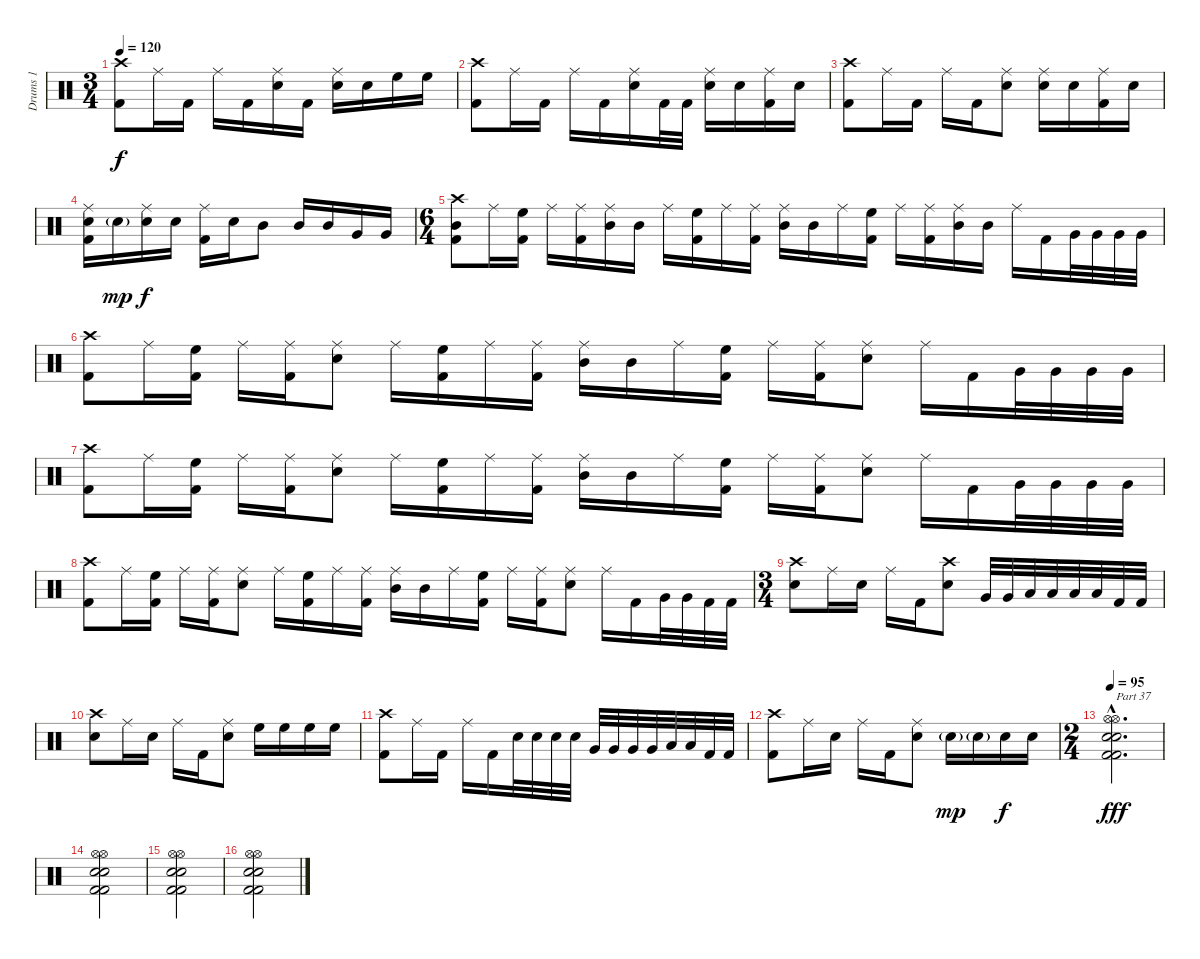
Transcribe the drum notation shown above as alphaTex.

\track ("Drums 1" "Drums 1") {instrument percussion}
\staff {score}
\articulation defaults
\ts (3 4)
\tempo 120
\clef neutral
\ks c
("Kick (hit) 2" "Crash high (hit)").8{dy f} "Ride (middle)".16 "Kick (hit) 2".16 "Ride (middle)".16 "Kick (hit) 2".16 ("Ride (middle)" "Snare (hit) 2").16 "Kick (hit) 2".16 ("Ride (middle)" "Snare (hit) 2").16 "Snare (hit) 2".16 "High Floor Tom (hit)".16 "High Floor Tom (hit)".16 |
("Kick (hit) 2" "Crash high (hit)").8 "Ride (middle)".16 "Kick (hit) 2".16 "Ride (middle)".16 "Kick (hit) 2".16 ("Ride (middle)" "Snare (hit) 2").16 "Kick (hit) 2".32 "Kick (hit) 2".32 ("Ride (middle)" "Snare (hit) 2").16 "Snare (hit) 2".16 ("Ride (middle)" "Kick (hit) 2").16 "Snare (hit) 2".16 |
("Crash high (hit)" "Kick (hit) 2").8 "Ride (middle)".16 "Kick (hit) 2".16 "Ride (middle)".16 "Kick (hit) 2".16 ("Ride (middle)" "Snare (hit) 2").8 ("Ride (middle)" "Snare (hit) 2").16 "Snare (hit) 2".16 ("Ride (middle)" "Kick (hit) 2").16 "Snare (hit) 2".16 |
("Ride (middle)" "Snare (hit) 2" "Kick (hit) 2").16 "Snare (hit) 2"{g}.16{dy mp} ("Ride (middle)" "Snare (hit) 2").16{dy f} "Snare (hit) 2".16 ("Ride (middle)" "Kick (hit) 2").16 "Snare (hit) 2".16 "Mid Tom (hit)".8 "Mid Tom (hit)".16 "Mid Tom (hit)".16 "Very Low Tom (hit)".16 "Very Low Tom (hit)".16 |
\ts (6 4)
("Crash high (hit)" "Mid Tom (hit)" "Kick (hit) 2").8 "Ride (middle)".16 ("High Floor Tom (hit)" "Kick (hit) 2").16 "Ride (middle)".16 ("Ride (middle)" "Kick (hit) 2").16 ("Ride (middle)" "Mid Tom (hit)").16 "Mid Tom (hit)".16 "Ride (middle)".16 ("High Floor Tom (hit)" "Kick (hit) 2").16 "Ride (middle)".16 ("Ride (middle)" "Kick (hit) 2").16 ("Ride (middle)" "Mid Tom (hit)").16 "Mid Tom (hit)".16 "Ride (middle)".16 ("High Floor Tom (hit)" "Kick (hit) 2").16 "Ride (middle)".16 ("Kick (hit) 2" "Ride (middle)").16 ("Mid Tom (hit)" "Ride (middle)").16 "Mid Tom (hit)".16 "Ride (middle)".16 "Kick (hit) 2".16 "Very Low Tom (hit)".32 "Very Low Tom (hit)".32 "Very Low Tom (hit)".32 "Very Low Tom (hit)".32 |
("Crash high (hit)" "Kick (hit) 2").8 "Ride (middle)".16 ("High Floor Tom (hit)" "Kick (hit) 2").16 "Ride (middle)".16 ("Ride (middle)" "Kick (hit) 2").16 ("Ride (middle)" "Snare (hit) 2").8 "Ride (middle)".16 ("High Floor Tom (hit)" "Kick (hit) 2").16 "Ride (middle)".16 ("Ride (middle)" "Kick (hit) 2").16 ("Ride (middle)" "Mid Tom (hit)").16 "Mid Tom (hit)".16 "Ride (middle)".16 ("High Floor Tom (hit)" "Kick (hit) 2").16 "Ride (middle)".16 ("Kick (hit) 2" "Ride (middle)").16 ("Snare (hit) 2" "Ride (middle)").8 "Ride (middle)".16 "Kick (hit) 2".16 "Very Low Tom (hit)".32 "Very Low Tom (hit)".32 "Very Low Tom (hit)".32 "Very Low Tom (hit)".32 |
("Crash high (hit)" "Kick (hit) 2").8 "Ride (middle)".16 ("High Floor Tom (hit)" "Kick (hit) 2").16 "Ride (middle)".16 ("Ride (middle)" "Kick (hit) 2").16 ("Ride (middle)" "Snare (hit) 2").8 "Ride (middle)".16 ("High Floor Tom (hit)" "Kick (hit) 2").16 "Ride (middle)".16 ("Ride (middle)" "Kick (hit) 2").16 ("Ride (middle)" "Mid Tom (hit)").16 "Mid Tom (hit)".16 "Ride (middle)".16 ("High Floor Tom (hit)" "Kick (hit) 2").16 "Ride (middle)".16 ("Kick (hit) 2" "Ride (middle)").16 ("Snare (hit) 2" "Ride (middle)").8 "Ride (middle)".16 "Kick (hit) 2".16 "Very Low Tom (hit)".32 "Very Low Tom (hit)".32 "Very Low Tom (hit)".32 "Very Low Tom (hit)".32 |
("Crash high (hit)" "Kick (hit) 2").8 "Ride (middle)".16 ("High Floor Tom (hit)" "Kick (hit) 2").16 "Ride (middle)".16 ("Ride (middle)" "Kick (hit) 2").16 ("Ride (middle)" "Snare (hit) 2").8 "Ride (middle)".16 ("High Floor Tom (hit)" "Kick (hit) 2").16 "Ride (middle)".16 ("Ride (middle)" "Kick (hit) 2").16 ("Ride (middle)" "Mid Tom (hit)").16 "Mid Tom (hit)".16 "Ride (middle)".16 ("High Floor Tom (hit)" "Kick (hit) 2").16 "Ride (middle)".16 ("Kick (hit) 2" "Ride (middle)").16 ("Snare (hit) 2" "Ride (middle)").8 "Ride (middle)".16 "Kick (hit) 2".16 "Very Low Tom (hit)".32 "Very Low Tom (hit)".32 "Kick (hit) 2".32 "Kick (hit) 2".32 |
\ts (3 4)
("Crash high (hit)" "Snare (hit) 2").8 "Ride (middle)".16 "Snare (hit) 2".16 "Ride (middle)".16 "Kick (hit) 2".16 ("Crash high (hit)" "Snare (hit) 2").8 "Very Low Tom (hit)".32 "Very Low Tom (hit)".32 "Low Floor Tom (hit)".32 "Low Floor Tom (hit)".32 "Low Floor Tom (hit)".32 "Low Floor Tom (hit)".32 "Kick (hit) 2".32 "Kick (hit) 2".32 |
("Crash high (hit)" "Snare (hit) 2").8 "Ride (middle)".16 "Snare (hit) 2".16 "Ride (middle)".16 "Kick (hit) 2".16 ("Ride (middle)" "Snare (hit) 2").8 "High Floor Tom (hit)".16 "High Floor Tom (hit)".16 "High Floor Tom (hit)".16 "High Floor Tom (hit)".16 |
("Crash high (hit)" "Kick (hit) 2").8 "Ride (middle)".16 "Kick (hit) 2".16 "Ride (middle)".16 "Kick (hit) 2".16 "Snare (hit) 2".32 "Snare (hit) 2".32 "Snare (hit) 2".32 "Snare (hit) 2".32 "Very Low Tom (hit)".32 "Very Low Tom (hit)".32 "Very Low Tom (hit)".32 "Very Low Tom (hit)".32 "Low Floor Tom (hit)".32 "Low Floor Tom (hit)".32 "Kick (hit) 2".32 "Kick (hit) 2".32 |
("Crash high (hit)" "Kick (hit) 2").8 "Ride (middle)".16 "Snare (hit) 2".16 "Ride (middle)".16 "Kick (hit) 2".16 ("Ride (middle)" "Snare (hit) 2").8 "Snare (hit) 2"{g}.16{dy mp} "Snare (hit) 2"{g}.16 "Snare (hit) 2".16{dy f} "Snare (hit) 2".16 |
\ts (2 4)
\tempo 95
("Snare (hit) 2"{hac} "Hi-Hat (open)"{hac} "Kick (hit) 2"{hac} "Hi-Hat (open)"{hac} "Snare (hit) 2"{hac} "Kick (hit) 2"{hac}).2{d txt "Part 37" dy fff} |
("Snare (hit) 2" "Hi-Hat (open)" "Kick (hit) 2" "Hi-Hat (open)" "Snare (hit) 2" "Kick (hit) 2").2 |
("Snare (hit) 2" "Hi-Hat (open)" "Kick (hit) 2" "Hi-Hat (open)" "Snare (hit) 2" "Kick (hit) 2").2 |
("Snare (hit) 2" "Hi-Hat (open)" "Kick (hit) 2" "Hi-Hat (open)" "Snare (hit) 2" "Kick (hit) 2").2
